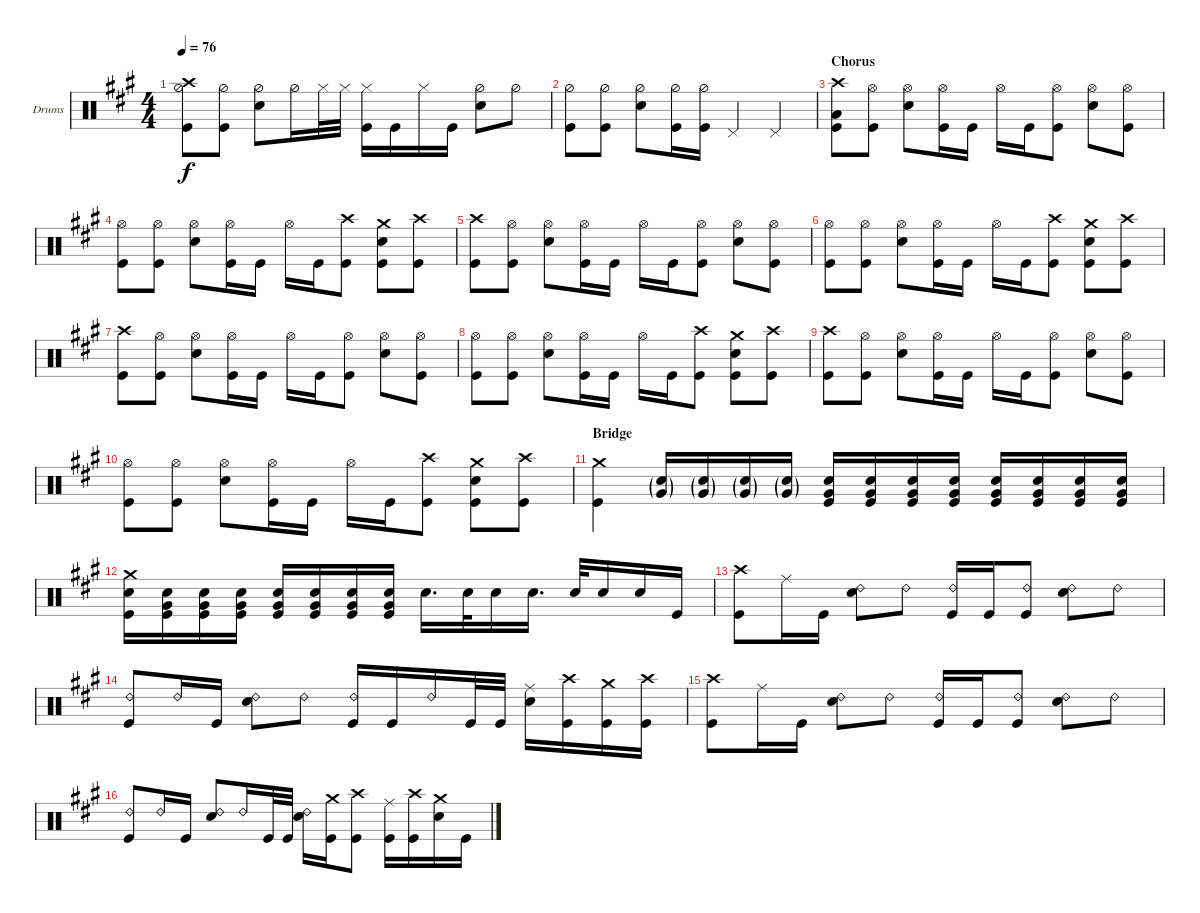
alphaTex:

\defaultSystemsLayout 4
\bracketExtendMode groupsimilarinstruments
\firstSystemTrackNameOrientation horizontal
\otherSystemsTrackNameOrientation horizontal
\track ("Drums" "Drums") {instrument percussion}
\staff {score}
\articulation defaults
\ts (4 4)
\tempo 76
\clef neutral
\ks f#minor
("Kick (hit)" "Crash high (hit)" "Hi-Hat (half)").8{dy f} ("Kick (hit)" "Hi-Hat (half)").8 ("Hi-Hat (half)" "Snare (hit) 2").8 "Hi-Hat (half)".16 "Hi-Hat (closed)".32 "Hi-Hat (closed)".32 ("Hi-Hat (closed)" "Kick (hit)").16 "Kick (hit)".16 "Hi-Hat (closed)".16 "Kick (hit)".16 ("Hi-Hat (half)" "Snare (hit) 2").8 "Hi-Hat (half)".8 |
("Kick (hit)" "Hi-Hat (half)").8 ("Kick (hit)" "Hi-Hat (half)").8 ("Hi-Hat (half)" "Snare (hit) 2").8 ("Hi-Hat (half)" "Kick (hit)").16 ("Kick (hit)" "Hi-Hat (half)").16 "Pedal Hi-Hat (hit)".4 "Pedal Hi-Hat (hit)".4 |
\section ("" "Chorus")
("Kick (hit)" "Crash high (hit)" "Low Tom (hit)").8 ("Hi-Hat (open)" "Kick (hit)").8 ("Hi-Hat (open)" "Snare (hit) 2").8 ("Hi-Hat (open)" "Kick (hit)").16 "Kick (hit)".16 "Hi-Hat (open)".16 "Kick (hit)".16 ("Hi-Hat (open)" "Kick (hit)").8 ("Hi-Hat (open)" "Snare (hit) 2").8 ("Hi-Hat (open)" "Kick (hit)").8 |
("Kick (hit)" "Hi-Hat (open)").8 ("Kick (hit)" "Hi-Hat (open)").8 ("Hi-Hat (open)" "Snare (hit) 2").8 ("Hi-Hat (open)" "Kick (hit)").16 "Kick (hit)".16 "Hi-Hat (open)".16 "Kick (hit)".16 ("Kick (hit)" "Crash high (hit)").8 ("Kick (hit)" "Snare (hit) 2" "Crash medium (hit)").8 ("Crash high (hit)" "Kick (hit)").8 |
("Kick (hit)" "Crash high (hit)").8 ("Hi-Hat (open)" "Kick (hit)").8 ("Hi-Hat (open)" "Snare (hit) 2").8 ("Hi-Hat (open)" "Kick (hit)").16 "Kick (hit)".16 "Hi-Hat (open)".16 "Kick (hit)".16 ("Hi-Hat (open)" "Kick (hit)").8 ("Hi-Hat (open)" "Snare (hit) 2").8 ("Hi-Hat (open)" "Kick (hit)").8 |
("Kick (hit)" "Hi-Hat (open)").8 ("Kick (hit)" "Hi-Hat (open)").8 ("Hi-Hat (open)" "Snare (hit) 2").8 ("Hi-Hat (open)" "Kick (hit)").16 "Kick (hit)".16 "Hi-Hat (open)".16 "Kick (hit)".16 ("Kick (hit)" "Crash high (hit)").8 ("Kick (hit)" "Snare (hit) 2" "Crash medium (hit)").8 ("Crash high (hit)" "Kick (hit)").8 |
("Kick (hit)" "Crash high (hit)").8 ("Hi-Hat (open)" "Kick (hit)").8 ("Hi-Hat (open)" "Snare (hit) 2").8 ("Hi-Hat (open)" "Kick (hit)").16 "Kick (hit)".16 "Hi-Hat (open)".16 "Kick (hit)".16 ("Hi-Hat (open)" "Kick (hit)").8 ("Hi-Hat (open)" "Snare (hit) 2").8 ("Hi-Hat (open)" "Kick (hit)").8 |
("Kick (hit)" "Hi-Hat (open)").8 ("Kick (hit)" "Hi-Hat (open)").8 ("Hi-Hat (open)" "Snare (hit) 2").8 ("Hi-Hat (open)" "Kick (hit)").16 "Kick (hit)".16 "Hi-Hat (open)".16 "Kick (hit)".16 ("Kick (hit)" "Crash high (hit)").8 ("Kick (hit)" "Snare (hit) 2" "Crash medium (hit)").8 ("Crash high (hit)" "Kick (hit)").8 |
("Kick (hit)" "Crash high (hit)").8 ("Hi-Hat (open)" "Kick (hit)").8 ("Hi-Hat (open)" "Snare (hit) 2").8 ("Hi-Hat (open)" "Kick (hit)").16 "Kick (hit)".16 "Hi-Hat (open)".16 "Kick (hit)".16 ("Hi-Hat (open)" "Kick (hit)").8 ("Hi-Hat (open)" "Snare (hit) 2").8 ("Hi-Hat (open)" "Kick (hit)").8 |
("Kick (hit)" "Hi-Hat (open)").8 ("Kick (hit)" "Hi-Hat (open)").8 ("Hi-Hat (open)" "Snare (hit) 2").8 ("Hi-Hat (open)" "Kick (hit)").16 "Kick (hit)".16 "Hi-Hat (open)".16 "Kick (hit)".16 ("Kick (hit)" "Crash high (hit)").8 ("Kick (hit)" "Snare (hit) 2" "Crash medium (hit)").8 ("Crash high (hit)" "Kick (hit)").8 |
\section ("" "Bridge")
("Crash medium (hit)" "Kick (hit)").4 ("Very Low Tom (hit)"{g} "Snare (hit) 2"{g}).16{beam merge} ("Very Low Tom (hit)"{g} "Snare (hit) 2"{g}).16{beam merge} ("Very Low Tom (hit)"{g} "Snare (hit) 2"{g}).16{beam merge} ("Very Low Tom (hit)"{g} "Snare (hit) 2"{g}).16{beam split} ("Very Low Tom (hit)" "Snare (hit) 2" "Kick (hit)").16{beam merge} ("Very Low Tom (hit)" "Snare (hit) 2" "Kick (hit)").16 ("Very Low Tom (hit)" "Snare (hit) 2" "Kick (hit)").16 ("Very Low Tom (hit)" "Snare (hit) 2" "Kick (hit)").16{beam split} ("Very Low Tom (hit)" "Snare (hit) 2" "Kick (hit)").16{beam merge} ("Very Low Tom (hit)" "Snare (hit) 2" "Kick (hit)").16 ("Very Low Tom (hit)" "Snare (hit) 2" "Kick (hit)").16 ("Very Low Tom (hit)" "Snare (hit) 2" "Kick (hit)").16 |
("Crash medium (hit)" "Snare (hit) 2" "Kick (hit)").16 ("Kick (hit)" "Very Low Tom (hit)" "Snare (hit) 2").16 ("Kick (hit)" "Very Low Tom (hit)" "Snare (hit) 2").16 ("Kick (hit)" "Very Low Tom (hit)" "Snare (hit) 2").16 ("Kick (hit)" "Very Low Tom (hit)" "Snare (hit) 2").16 ("Kick (hit)" "Very Low Tom (hit)" "Snare (hit) 2").16 ("Kick (hit)" "Very Low Tom (hit)" "Snare (hit) 2").16 ("Kick (hit)" "Very Low Tom (hit)" "Snare (hit) 2").16 "Snare (hit) 2".16{d} "Snare (hit) 2".32 "Snare (hit) 2".16 "Snare (hit) 2".16{d} "Snare (hit) 2".32 "Snare (hit) 2".16 "Snare (hit) 2".16 "Kick (hit)".16 |
("Kick (hit)" "Crash high (hit)").8 "Ride (middle)".16 "Kick (hit)".16 ("Ride (bell) 2" "Snare (hit) 2").8 "Ride (bell) 2".8 ("Ride (bell) 2" "Kick (hit)").16 "Kick (hit)".16 ("Ride (bell) 2" "Kick (hit)").8 ("Ride (bell) 2" "Snare (hit) 2").8 "Ride (bell) 2".8 |
("Kick (hit)" "Ride (bell) 2").8 "Ride (bell) 2".16 "Kick (hit)".16 ("Snare (hit) 2" "Ride (bell) 2").8 "Ride (bell) 2".8 ("Ride (bell) 2" "Kick (hit)").16 "Kick (hit)".16 "Ride (bell) 2".16 "Kick (hit)".32 "Kick (hit)".32 ("Ride (middle)" "Snare (hit) 2").16 ("Crash high (hit)" "Kick (hit)").16 ("Crash medium (hit)" "Kick (hit)").16 ("Kick (hit)" "Crash high (hit)").16 |
("Kick (hit)" "Crash high (hit)").8 "Ride (middle)".16 "Kick (hit)".16 ("Ride (bell) 2" "Snare (hit) 2").8 "Ride (bell) 2".8 ("Ride (bell) 2" "Kick (hit)").16 "Kick (hit)".16 ("Ride (bell) 2" "Kick (hit)").8 ("Ride (bell) 2" "Snare (hit) 2").8 "Ride (bell) 2".8 |
("Kick (hit)" "Ride (bell) 2").8 "Ride (bell) 2".16 "Kick (hit)".16 ("Snare (hit) 2" "Ride (bell) 2").8 "Ride (bell) 2".16 "Kick (hit)".32 "Kick (hit)".32 ("Snare (hit) 2" "Ride (bell) 2").16 ("Crash medium (hit)" "Kick (hit)").16 ("Crash high (hit)" "Kick (hit)").8 ("Kick (hit)" "Ride (middle)").16 ("Kick (hit)" "Crash high (hit)").16 ("Crash medium (hit)" "Snare (hit) 2").16 "Kick (hit)".16
